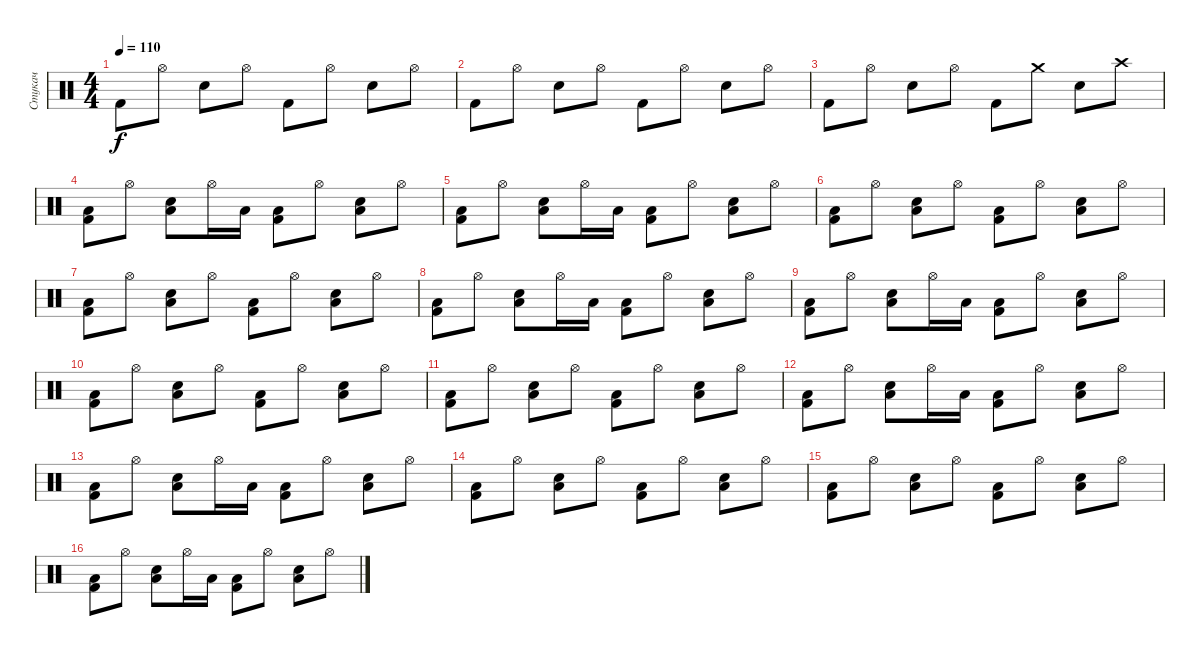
\track ("Стукач" "Стукач") {instrument percussion}
\staff {score}
\articulation defaults
\ts (4 4)
\tempo 110
\clef neutral
\ks c "Kick (hit) 2".8{dy f} "Hi-Hat (open)".8 "Electric Snare (hit)".8 "Hi-Hat (open)".8 "Kick (hit) 2".8 "Hi-Hat (open)".8 "Electric Snare (hit)".8 "Hi-Hat (open)".8
|
"Kick (hit) 2".8 "Hi-Hat (open)".8 "Electric Snare (hit)".8 "Hi-Hat (open)".8 "Kick (hit) 2".8 "Hi-Hat (open)".8 "Electric Snare (hit)".8 "Hi-Hat (open)".8 |
"Kick (hit) 2".8 "Hi-Hat (open)".8 "Electric Snare (hit)".8 "Hi-Hat (open)".8 "Kick (hit) 2".8 "Crash medium (hit)".8 "Electric Snare (hit)".8 "Crash high (hit)".8 |
("Kick (hit) 2" "Low Floor Tom (hit)").8 "Hi-Hat (open)".8 ("Electric Snare (hit)" "Low Floor Tom (hit)").8 "Hi-Hat (open)".16 "Low Floor Tom (hit)".16 ("Kick (hit) 2" "Low Floor Tom (hit)").8 "Hi-Hat (open)".8 ("Electric Snare (hit)" "Low Floor Tom (hit)").8 "Hi-Hat (open)".8 |
("Kick (hit) 2" "Low Floor Tom (hit)").8 "Hi-Hat (open)".8 ("Electric Snare (hit)" "Low Floor Tom (hit)").8 "Hi-Hat (open)".16 "Low Floor Tom (hit)".16 ("Kick (hit) 2" "Low Floor Tom (hit)").8 "Hi-Hat (open)".8 ("Electric Snare (hit)" "Low Floor Tom (hit)").8 "Hi-Hat (open)".8 |
("Kick (hit) 2" "Low Floor Tom (hit)").8 "Hi-Hat (open)".8 ("Electric Snare (hit)" "Low Floor Tom (hit)").8 "Hi-Hat (open)".8 ("Kick (hit) 2" "Low Floor Tom (hit)").8 "Hi-Hat (open)".8 ("Electric Snare (hit)" "Low Floor Tom (hit)").8 "Hi-Hat (open)".8 |
("Kick (hit) 2" "Low Floor Tom (hit)").8 "Hi-Hat (open)".8 ("Electric Snare (hit)" "Low Floor Tom (hit)").8 "Hi-Hat (open)".8 ("Kick (hit) 2" "Low Floor Tom (hit)").8 "Hi-Hat (open)".8 ("Electric Snare (hit)" "Low Floor Tom (hit)").8 "Hi-Hat (open)".8 |
("Kick (hit) 2" "Low Floor Tom (hit)").8 "Hi-Hat (open)".8 ("Electric Snare (hit)" "Low Floor Tom (hit)").8 "Hi-Hat (open)".16 "Low Floor Tom (hit)".16 ("Kick (hit) 2" "Low Floor Tom (hit)").8 "Hi-Hat (open)".8 ("Electric Snare (hit)" "Low Floor Tom (hit)").8 "Hi-Hat (open)".8 |
("Kick (hit) 2" "Low Floor Tom (hit)").8 "Hi-Hat (open)".8 ("Electric Snare (hit)" "Low Floor Tom (hit)").8 "Hi-Hat (open)".16 "Low Floor Tom (hit)".16 ("Kick (hit) 2" "Low Floor Tom (hit)").8 "Hi-Hat (open)".8 ("Electric Snare (hit)" "Low Floor Tom (hit)").8 "Hi-Hat (open)".8 |
("Kick (hit) 2" "Low Floor Tom (hit)").8 "Hi-Hat (open)".8 ("Electric Snare (hit)" "Low Floor Tom (hit)").8 "Hi-Hat (open)".8 ("Kick (hit) 2" "Low Floor Tom (hit)").8 "Hi-Hat (open)".8 ("Electric Snare (hit)" "Low Floor Tom (hit)").8 "Hi-Hat (open)".8 |
("Kick (hit) 2" "Low Floor Tom (hit)").8 "Hi-Hat (open)".8 ("Electric Snare (hit)" "Low Floor Tom (hit)").8 "Hi-Hat (open)".8 ("Kick (hit) 2" "Low Floor Tom (hit)").8 "Hi-Hat (open)".8 ("Electric Snare (hit)" "Low Floor Tom (hit)").8 "Hi-Hat (open)".8 |
("Kick (hit) 2" "Low Floor Tom (hit)").8 "Hi-Hat (open)".8 ("Electric Snare (hit)" "Low Floor Tom (hit)").8 "Hi-Hat (open)".16 "Low Floor Tom (hit)".16 ("Kick (hit) 2" "Low Floor Tom (hit)").8 "Hi-Hat (open)".8 ("Electric Snare (hit)" "Low Floor Tom (hit)").8 "Hi-Hat (open)".8 |
("Kick (hit) 2" "Low Floor Tom (hit)").8 "Hi-Hat (open)".8 ("Electric Snare (hit)" "Low Floor Tom (hit)").8 "Hi-Hat (open)".16 "Low Floor Tom (hit)".16 ("Kick (hit) 2" "Low Floor Tom (hit)").8 "Hi-Hat (open)".8 ("Electric Snare (hit)" "Low Floor Tom (hit)").8 "Hi-Hat (open)".8 |
("Kick (hit) 2" "Low Floor Tom (hit)").8 "Hi-Hat (open)".8 ("Electric Snare (hit)" "Low Floor Tom (hit)").8 "Hi-Hat (open)".8 ("Kick (hit) 2" "Low Floor Tom (hit)").8 "Hi-Hat (open)".8 ("Electric Snare (hit)" "Low Floor Tom (hit)").8 "Hi-Hat (open)".8 |
("Kick (hit) 2" "Low Floor Tom (hit)").8 "Hi-Hat (open)".8 ("Electric Snare (hit)" "Low Floor Tom (hit)").8 "Hi-Hat (open)".8 ("Kick (hit) 2" "Low Floor Tom (hit)").8 "Hi-Hat (open)".8 ("Electric Snare (hit)" "Low Floor Tom (hit)").8 "Hi-Hat (open)".8 |
("Kick (hit) 2" "Low Floor Tom (hit)").8 "Hi-Hat (open)".8 ("Electric Snare (hit)" "Low Floor Tom (hit)").8 "Hi-Hat (open)".16 "Low Floor Tom (hit)".16 ("Kick (hit) 2" "Low Floor Tom (hit)").8 "Hi-Hat (open)".8 ("Electric Snare (hit)" "Low Floor Tom (hit)").8 "Hi-Hat (open)".8
